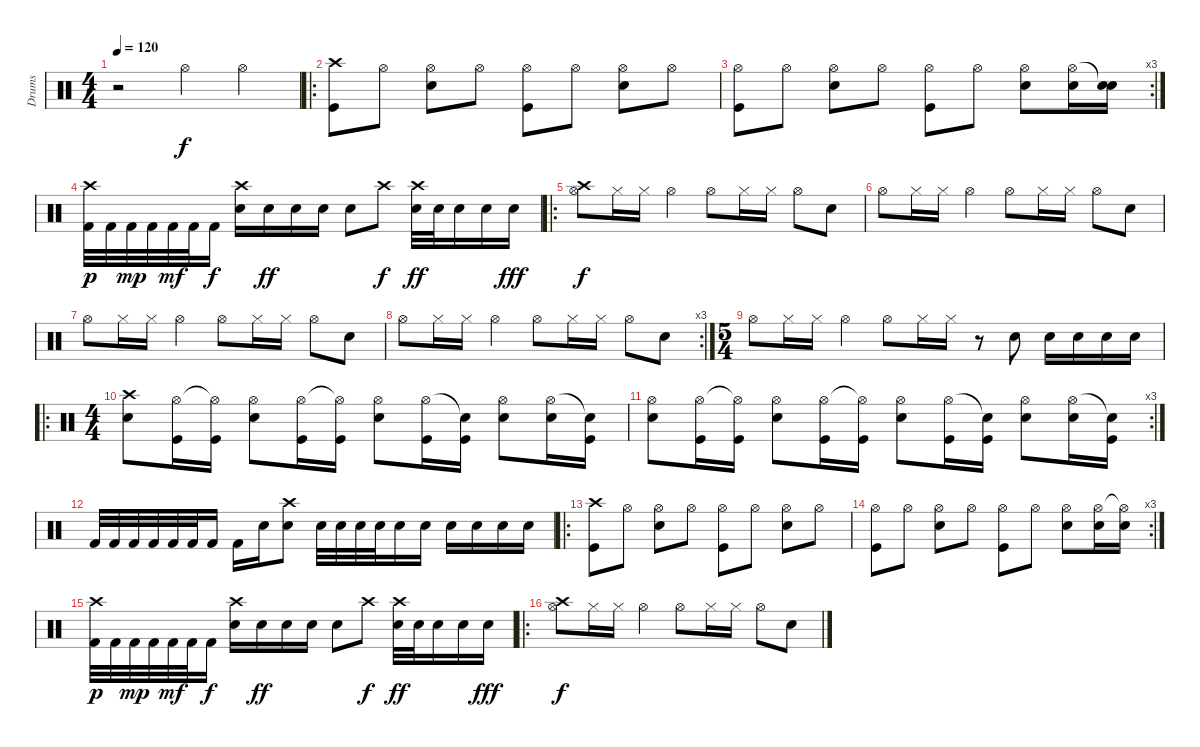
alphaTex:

\track ("Drums" "Drums") {instrument percussion}
\staff {score}
\articulation defaults
\ts (4 4)
\tempo 120
\tempo 96
\tempo 120
\clef neutral
\ks c
r.2{dy f} "Hi-Hat (open)".4 "Hi-Hat (open)".4 |
\ro
("Crash high (hit)" "Kick (hit)").8 "Hi-Hat (open)".8 ("Hi-Hat (open)" "Electric Snare (hit)").8 "Hi-Hat (open)".8 ("Hi-Hat (open)" "Kick (hit)").8 "Hi-Hat (open)".8 ("Hi-Hat (open)" "Electric Snare (hit)").8 "Hi-Hat (open)".8 |
\rc 3
("Hi-Hat (open)" "Kick (hit)").8 "Hi-Hat (open)".8 ("Hi-Hat (open)" "Electric Snare (hit)").8 "Hi-Hat (open)".8 ("Hi-Hat (open)" "Kick (hit)").8 "Hi-Hat (open)".8 ("Hi-Hat (open)" "Electric Snare (hit)").8 ("Hi-Hat (open)" "Electric Snare (hit)").16 ("Snare (hit)"{t} "Electric Snare (hit)").16 |
("Crash high (hit)" "Kick (hit) 2").32{dy p} "Kick (hit) 2".32 "Kick (hit) 2".32{dy mp} "Kick (hit) 2".32 "Kick (hit) 2".32{dy mf} "Kick (hit) 2".32 "Kick (hit) 2".16{dy f} ("Crash high (hit)" "Electric Snare (hit)").16 "Electric Snare (hit)".16{dy ff} "Electric Snare (hit)".16 "Electric Snare (hit)".16 "Electric Snare (hit)".8 "Crash high (hit)".8{dy f} ("Crash high (hit)" "Electric Snare (hit)").32{dy ff} "Electric Snare (hit)".32 "Electric Snare (hit)".16 "Electric Snare (hit)".16 "Electric Snare (hit)".16{dy fff} |
\ro
("Hi-Hat (open)" "Crash high (hit)").8{dy f} "Hi-Hat (closed)".16 "Hi-Hat (closed)".16 "Hi-Hat (open)".4 "Hi-Hat (open)".8 "Hi-Hat (closed)".16 "Hi-Hat (closed)".16 "Hi-Hat (open)".8 "Electric Snare (hit)".8 |
"Hi-Hat (open)".8 "Hi-Hat (closed)".16 "Hi-Hat (closed)".16 "Hi-Hat (open)".4 "Hi-Hat (open)".8 "Hi-Hat (closed)".16 "Hi-Hat (closed)".16 "Hi-Hat (open)".8 "Electric Snare (hit)".8 |
"Hi-Hat (open)".8 "Hi-Hat (closed)".16 "Hi-Hat (closed)".16 "Hi-Hat (open)".4 "Hi-Hat (open)".8 "Hi-Hat (closed)".16 "Hi-Hat (closed)".16 "Hi-Hat (open)".8 "Electric Snare (hit)".8 |
\rc 3 "Hi-Hat (open)".8 "Hi-Hat (closed)".16 "Hi-Hat (closed)".16 "Hi-Hat (open)".4 "Hi-Hat (open)".8 "Hi-Hat (closed)".16 "Hi-Hat (closed)".16 "Hi-Hat (open)".8 "Electric Snare (hit)".8
|
\ts (5 4)
"Hi-Hat (open)".8 "Hi-Hat (closed)".16 "Hi-Hat (closed)".16 "Hi-Hat (open)".4 "Hi-Hat (open)".8 "Hi-Hat (closed)".16 "Hi-Hat (closed)".16 r.8 "Electric Snare (hit)".8 "Electric Snare (hit)".16 "Electric Snare (hit)".16 "Electric Snare (hit)".16 "Electric Snare (hit)".16 |
\ro
\ts (4 4)
("Crash high (hit)" "Electric Snare (hit)").8 ("Hi-Hat (open)" "Kick (hit)").16 ("Hi-Hat (open)"{t} "Kick (hit)").16 ("Hi-Hat (open)" "Electric Snare (hit)").8 ("Hi-Hat (open)" "Kick (hit)").16 ("Hi-Hat (open)"{t} "Kick (hit)").16 ("Hi-Hat (open)" "Electric Snare (hit)").8 ("Hi-Hat (open)" "Kick (hit)").16 ("Snare (hit)"{t} "Kick (hit)").16 ("Hi-Hat (open)" "Electric Snare (hit)").8 ("Hi-Hat (open)" "Electric Snare (hit)").16 ("Snare (hit)"{t} "Kick (hit)").16 |
\rc 3
("Hi-Hat (open)" "Electric Snare (hit)").8 ("Hi-Hat (open)" "Kick (hit)").16 ("Hi-Hat (open)"{t} "Kick (hit)").16 ("Hi-Hat (open)" "Electric Snare (hit)").8 ("Hi-Hat (open)" "Kick (hit)").16 ("Hi-Hat (open)"{t} "Kick (hit)").16 ("Hi-Hat (open)" "Electric Snare (hit)").8 ("Hi-Hat (open)" "Kick (hit)").16 ("Snare (hit)"{t} "Kick (hit)").16 ("Hi-Hat (open)" "Electric Snare (hit)").8 ("Hi-Hat (open)" "Electric Snare (hit)").16 ("Snare (hit)"{t} "Kick (hit)").16 |
"Kick (hit) 2".32 "Kick (hit) 2".32 "Kick (hit) 2".32 "Kick (hit) 2".32 "Kick (hit) 2".32 "Kick (hit) 2".32 "Kick (hit) 2".16 "Kick (hit) 2".16 "Electric Snare (hit)".16 ("Crash high (hit)" "Electric Snare (hit)").8 "Electric Snare (hit)".32 "Electric Snare (hit)".32 "Electric Snare (hit)".32 "Electric Snare (hit)".32 "Electric Snare (hit)".16 "Electric Snare (hit)".16 "Electric Snare (hit)".16 "Electric Snare (hit)".16 "Electric Snare (hit)".16 "Electric Snare (hit)".16 |
\ro
("Crash high (hit)" "Kick (hit)").8 "Hi-Hat (open)".8 ("Hi-Hat (open)" "Electric Snare (hit)").8 "Hi-Hat (open)".8 ("Hi-Hat (open)" "Kick (hit)").8 "Hi-Hat (open)".8 ("Hi-Hat (open)" "Electric Snare (hit)").8 "Hi-Hat (open)".8 |
\rc 3
("Hi-Hat (open)" "Kick (hit)").8 "Hi-Hat (open)".8 ("Hi-Hat (open)" "Electric Snare (hit)").8 "Hi-Hat (open)".8 ("Hi-Hat (open)" "Kick (hit)").8 "Hi-Hat (open)".8 ("Hi-Hat (open)" "Electric Snare (hit)").8 ("Hi-Hat (open)" "Electric Snare (hit)").16 ("Hi-Hat (open)"{t} "Electric Snare (hit)").16 |
("Crash high (hit)" "Kick (hit) 2").32{dy p} "Kick (hit) 2".32 "Kick (hit) 2".32{dy mp} "Kick (hit) 2".32 "Kick (hit) 2".32{dy mf} "Kick (hit) 2".32 "Kick (hit) 2".16{dy f} ("Crash high (hit)" "Electric Snare (hit)").16 "Electric Snare (hit)".16{dy ff} "Electric Snare (hit)".16 "Electric Snare (hit)".16 "Electric Snare (hit)".8 "Crash high (hit)".8{dy f} ("Crash high (hit)" "Electric Snare (hit)").32{dy ff} "Electric Snare (hit)".32 "Electric Snare (hit)".16 "Electric Snare (hit)".16 "Electric Snare (hit)".16{dy fff} |
\ro
("Hi-Hat (open)" "Crash high (hit)").8{dy f} "Hi-Hat (closed)".16 "Hi-Hat (closed)".16 "Hi-Hat (open)".4 "Hi-Hat (open)".8 "Hi-Hat (closed)".16 "Hi-Hat (closed)".16 "Hi-Hat (open)".8 "Electric Snare (hit)".8
